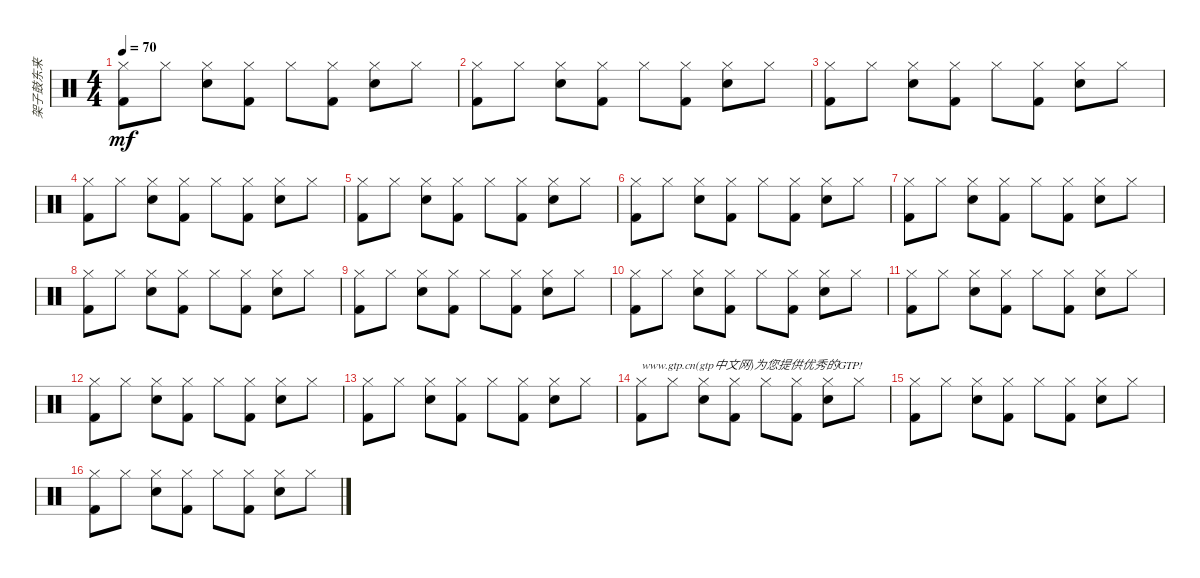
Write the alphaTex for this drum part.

\track ("架子鼓东来" "架子鼓东来") {instrument percussion}
\staff {score}
\articulation defaults
\ts (4 4)
\tempo 70
\clef neutral
\ks c
("Hi-Hat (closed)" "Kick (hit) 2").8{dy mf} "Hi-Hat (closed)".8 ("Hi-Hat (closed)" "Snare (hit) 2").8 ("Hi-Hat (closed)" "Kick (hit) 2").8 "Hi-Hat (closed)".8 ("Hi-Hat (closed)" "Kick (hit) 2").8 ("Hi-Hat (closed)" "Snare (hit) 2").8 "Hi-Hat (closed)".8 |
("Hi-Hat (closed)" "Kick (hit) 2").8 "Hi-Hat (closed)".8 ("Hi-Hat (closed)" "Snare (hit) 2").8 ("Hi-Hat (closed)" "Kick (hit) 2").8 "Hi-Hat (closed)".8 ("Hi-Hat (closed)" "Kick (hit) 2").8 ("Hi-Hat (closed)" "Snare (hit) 2").8 "Hi-Hat (closed)".8 |
("Hi-Hat (closed)" "Kick (hit) 2").8 "Hi-Hat (closed)".8 ("Hi-Hat (closed)" "Snare (hit) 2").8 ("Hi-Hat (closed)" "Kick (hit) 2").8 "Hi-Hat (closed)".8 ("Hi-Hat (closed)" "Kick (hit) 2").8 ("Hi-Hat (closed)" "Snare (hit) 2").8 "Hi-Hat (closed)".8 |
("Hi-Hat (closed)" "Kick (hit) 2").8 "Hi-Hat (closed)".8 ("Hi-Hat (closed)" "Snare (hit) 2").8 ("Hi-Hat (closed)" "Kick (hit) 2").8 "Hi-Hat (closed)".8 ("Hi-Hat (closed)" "Kick (hit) 2").8 ("Hi-Hat (closed)" "Snare (hit) 2").8 "Hi-Hat (closed)".8 |
("Hi-Hat (closed)" "Kick (hit) 2").8 "Hi-Hat (closed)".8 ("Hi-Hat (closed)" "Snare (hit) 2").8 ("Hi-Hat (closed)" "Kick (hit) 2").8 "Hi-Hat (closed)".8 ("Hi-Hat (closed)" "Kick (hit) 2").8 ("Hi-Hat (closed)" "Snare (hit) 2").8 "Hi-Hat (closed)".8 |
("Hi-Hat (closed)" "Kick (hit) 2").8 "Hi-Hat (closed)".8 ("Hi-Hat (closed)" "Snare (hit) 2").8 ("Hi-Hat (closed)" "Kick (hit) 2").8 "Hi-Hat (closed)".8 ("Hi-Hat (closed)" "Kick (hit) 2").8 ("Hi-Hat (closed)" "Snare (hit) 2").8 "Hi-Hat (closed)".8 |
("Hi-Hat (closed)" "Kick (hit) 2").8 "Hi-Hat (closed)".8 ("Hi-Hat (closed)" "Snare (hit) 2").8 ("Hi-Hat (closed)" "Kick (hit) 2").8 "Hi-Hat (closed)".8 ("Hi-Hat (closed)" "Kick (hit) 2").8 ("Hi-Hat (closed)" "Snare (hit) 2").8 "Hi-Hat (closed)".8 |
("Hi-Hat (closed)" "Kick (hit) 2").8 "Hi-Hat (closed)".8 ("Hi-Hat (closed)" "Snare (hit) 2").8 ("Hi-Hat (closed)" "Kick (hit) 2").8 "Hi-Hat (closed)".8 ("Hi-Hat (closed)" "Kick (hit) 2").8 ("Hi-Hat (closed)" "Snare (hit) 2").8 "Hi-Hat (closed)".8 |
("Hi-Hat (closed)" "Kick (hit) 2").8 "Hi-Hat (closed)".8 ("Hi-Hat (closed)" "Snare (hit) 2").8 ("Hi-Hat (closed)" "Kick (hit) 2").8 "Hi-Hat (closed)".8 ("Hi-Hat (closed)" "Kick (hit) 2").8 ("Hi-Hat (closed)" "Snare (hit) 2").8 "Hi-Hat (closed)".8 |
("Hi-Hat (closed)" "Kick (hit) 2").8 "Hi-Hat (closed)".8 ("Hi-Hat (closed)" "Snare (hit) 2").8 ("Hi-Hat (closed)" "Kick (hit) 2").8 "Hi-Hat (closed)".8 ("Hi-Hat (closed)" "Kick (hit) 2").8 ("Hi-Hat (closed)" "Snare (hit) 2").8 "Hi-Hat (closed)".8 |
("Hi-Hat (closed)" "Kick (hit) 2").8 "Hi-Hat (closed)".8 ("Hi-Hat (closed)" "Snare (hit) 2").8 ("Hi-Hat (closed)" "Kick (hit) 2").8 "Hi-Hat (closed)".8 ("Hi-Hat (closed)" "Kick (hit) 2").8 ("Hi-Hat (closed)" "Snare (hit) 2").8 "Hi-Hat (closed)".8 |
("Hi-Hat (closed)" "Kick (hit) 2").8 "Hi-Hat (closed)".8 ("Hi-Hat (closed)" "Snare (hit) 2").8 ("Hi-Hat (closed)" "Kick (hit) 2").8 "Hi-Hat (closed)".8 ("Hi-Hat (closed)" "Kick (hit) 2").8 ("Hi-Hat (closed)" "Snare (hit) 2").8 "Hi-Hat (closed)".8 |
("Hi-Hat (closed)" "Kick (hit) 2").8 "Hi-Hat (closed)".8 ("Hi-Hat (closed)" "Snare (hit) 2").8 ("Hi-Hat (closed)" "Kick (hit) 2").8 "Hi-Hat (closed)".8 ("Hi-Hat (closed)" "Kick (hit) 2").8 ("Hi-Hat (closed)" "Snare (hit) 2").8 "Hi-Hat (closed)".8 |
("Hi-Hat (closed)" "Kick (hit) 2").8{txt "www.gtp.cn(gtp中文网)为您提供优秀的GTP!"} "Hi-Hat (closed)".8 ("Hi-Hat (closed)" "Snare (hit) 2").8 ("Hi-Hat (closed)" "Kick (hit) 2").8 "Hi-Hat (closed)".8 ("Hi-Hat (closed)" "Kick (hit) 2").8 ("Hi-Hat (closed)" "Snare (hit) 2").8 "Hi-Hat (closed)".8 |
("Hi-Hat (closed)" "Kick (hit) 2").8 "Hi-Hat (closed)".8 ("Hi-Hat (closed)" "Snare (hit) 2").8 ("Hi-Hat (closed)" "Kick (hit) 2").8 "Hi-Hat (closed)".8 ("Hi-Hat (closed)" "Kick (hit) 2").8 ("Hi-Hat (closed)" "Snare (hit) 2").8 "Hi-Hat (closed)".8 |
("Hi-Hat (closed)" "Kick (hit) 2").8 "Hi-Hat (closed)".8 ("Hi-Hat (closed)" "Snare (hit) 2").8 ("Hi-Hat (closed)" "Kick (hit) 2").8 "Hi-Hat (closed)".8 ("Hi-Hat (closed)" "Kick (hit) 2").8 ("Hi-Hat (closed)" "Snare (hit) 2").8 "Hi-Hat (closed)".8
